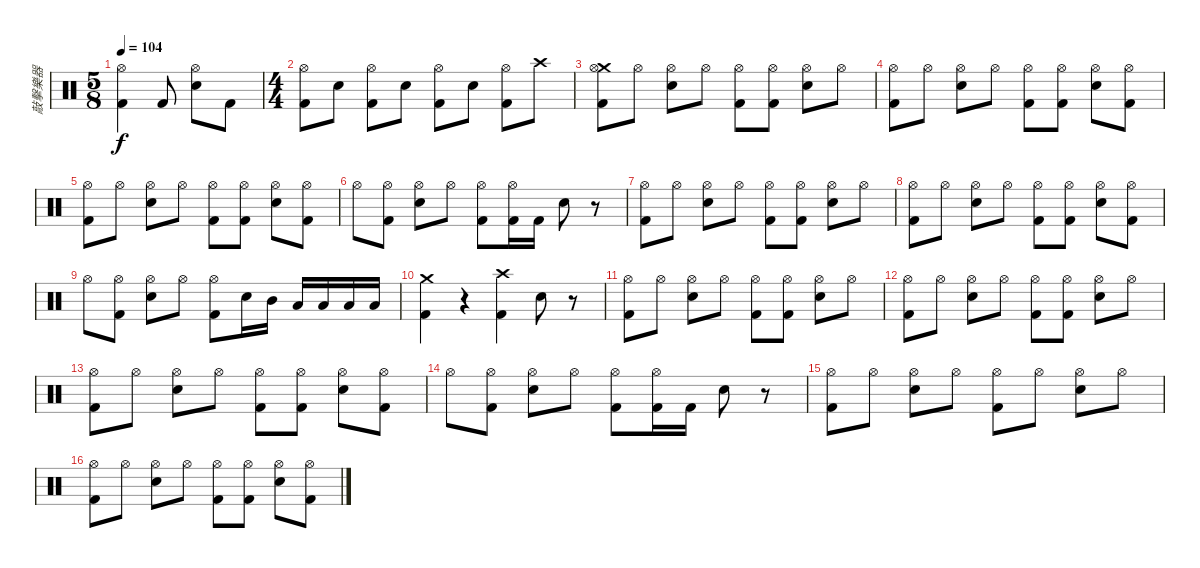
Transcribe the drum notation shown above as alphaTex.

\track ("敲擊樂器" "敲擊樂器") {instrument percussion}
\staff {score}
\articulation defaults
\ts (5 8)
\tempo 104
\clef neutral
\ks c
("Hi-Hat (open)" "Kick (hit) 2").4{dy f} "Kick (hit) 2".8 ("Hi-Hat (open)" "Snare (hit) 2").8 "Kick (hit) 2".8 |
\ts (4 4)
("Hi-Hat (open)" "Kick (hit) 2").8 "Electric Snare (hit)".8 ("Hi-Hat (open)" "Kick (hit) 2").8 "Electric Snare (hit)".8 ("Hi-Hat (open)" "Kick (hit) 2").8 "Electric Snare (hit)".8 ("Hi-Hat (open)" "Kick (hit) 2").8 "Crash high (hit)".8 |
("Crash medium (hit)" "Hi-Hat (open)" "Kick (hit) 2").8 "Hi-Hat (open)".8 ("Hi-Hat (open)" "Electric Snare (hit)").8 "Hi-Hat (open)".8 ("Hi-Hat (open)" "Kick (hit) 2").8 ("Hi-Hat (open)" "Kick (hit) 2").8 ("Hi-Hat (open)" "Electric Snare (hit)").8 "Hi-Hat (open)".8 |
("Hi-Hat (open)" "Kick (hit) 2").8 "Hi-Hat (open)".8 ("Hi-Hat (open)" "Electric Snare (hit)").8 "Hi-Hat (open)".8 ("Hi-Hat (open)" "Kick (hit) 2").8 ("Hi-Hat (open)" "Kick (hit) 2").8 ("Hi-Hat (open)" "Electric Snare (hit)").8 ("Hi-Hat (open)" "Kick (hit) 2").8 |
("Hi-Hat (open)" "Kick (hit) 2").8 "Hi-Hat (open)".8 ("Hi-Hat (open)" "Electric Snare (hit)").8 "Hi-Hat (open)".8 ("Hi-Hat (open)" "Kick (hit) 2").8 ("Hi-Hat (open)" "Kick (hit) 2").8 ("Hi-Hat (open)" "Electric Snare (hit)").8 ("Hi-Hat (open)" "Kick (hit) 2").8 |
"Hi-Hat (open)".8 ("Hi-Hat (open)" "Kick (hit) 2").8 ("Hi-Hat (open)" "Electric Snare (hit)").8 "Hi-Hat (open)".8 ("Hi-Hat (open)" "Kick (hit) 2").8 ("Hi-Hat (open)" "Kick (hit) 2").16 "Kick (hit) 2".16 "Electric Snare (hit)".8 r.8 |
("Hi-Hat (open)" "Kick (hit) 2").8 "Hi-Hat (open)".8 ("Hi-Hat (open)" "Electric Snare (hit)").8 "Hi-Hat (open)".8 ("Hi-Hat (open)" "Kick (hit) 2").8 ("Hi-Hat (open)" "Kick (hit) 2").8 ("Hi-Hat (open)" "Electric Snare (hit)").8 "Hi-Hat (open)".8 |
("Hi-Hat (open)" "Kick (hit) 2").8 "Hi-Hat (open)".8 ("Hi-Hat (open)" "Electric Snare (hit)").8 "Hi-Hat (open)".8 ("Hi-Hat (open)" "Kick (hit) 2").8 ("Hi-Hat (open)" "Kick (hit) 2").8 ("Hi-Hat (open)" "Electric Snare (hit)").8 ("Hi-Hat (open)" "Kick (hit) 2").8 |
"Hi-Hat (open)".8 ("Hi-Hat (open)" "Kick (hit) 2").8 ("Hi-Hat (open)" "Electric Snare (hit)").8 "Hi-Hat (open)".8 ("Hi-Hat (open)" "Kick (hit) 2").8 "Electric Snare (hit)".16 "Mid Tom (hit)".16 "Low Tom (hit)".16 "Low Tom (hit)".16 "Low Floor Tom (hit)".16 "Low Floor Tom (hit)".16 |
("Crash medium (hit)" "Kick (hit) 2").4 r.4 ("Crash high (hit)" "Kick (hit) 2").4 "Electric Snare (hit)".8 r.8 |
("Hi-Hat (open)" "Kick (hit) 2").8 "Hi-Hat (open)".8 ("Hi-Hat (open)" "Electric Snare (hit)").8 "Hi-Hat (open)".8 ("Hi-Hat (open)" "Kick (hit) 2").8 ("Hi-Hat (open)" "Kick (hit) 2").8 ("Hi-Hat (open)" "Electric Snare (hit)").8 "Hi-Hat (open)".8 |
("Hi-Hat (open)" "Kick (hit) 2").8 "Hi-Hat (open)".8 ("Hi-Hat (open)" "Electric Snare (hit)").8 "Hi-Hat (open)".8 ("Hi-Hat (open)" "Kick (hit) 2").8 ("Hi-Hat (open)" "Kick (hit) 2").8 ("Hi-Hat (open)" "Electric Snare (hit)").8 "Hi-Hat (open)".8 |
("Hi-Hat (open)" "Kick (hit) 2").8 "Hi-Hat (open)".8 ("Hi-Hat (open)" "Electric Snare (hit)").8 "Hi-Hat (open)".8 ("Hi-Hat (open)" "Kick (hit) 2").8 ("Hi-Hat (open)" "Kick (hit) 2").8 ("Hi-Hat (open)" "Electric Snare (hit)").8 ("Hi-Hat (open)" "Kick (hit) 2").8 |
"Hi-Hat (open)".8 ("Hi-Hat (open)" "Kick (hit) 2").8 ("Hi-Hat (open)" "Electric Snare (hit)").8 "Hi-Hat (open)".8 ("Hi-Hat (open)" "Kick (hit) 2").8 ("Hi-Hat (open)" "Kick (hit) 2").16 "Kick (hit) 2".16 "Electric Snare (hit)".8 r.8 |
("Hi-Hat (open)" "Kick (hit) 2").8 "Hi-Hat (open)".8 ("Hi-Hat (open)" "Electric Snare (hit)").8 "Hi-Hat (open)".8 ("Hi-Hat (open)" "Kick (hit) 2").8 "Hi-Hat (open)".8 ("Hi-Hat (open)" "Electric Snare (hit)").8 "Hi-Hat (open)".8 |
("Hi-Hat (open)" "Kick (hit) 2").8 "Hi-Hat (open)".8 ("Hi-Hat (open)" "Electric Snare (hit)").8 "Hi-Hat (open)".8 ("Hi-Hat (open)" "Kick (hit) 2").8 ("Hi-Hat (open)" "Kick (hit) 2").8 ("Hi-Hat (open)" "Electric Snare (hit)").8 ("Hi-Hat (open)" "Kick (hit) 2").8
